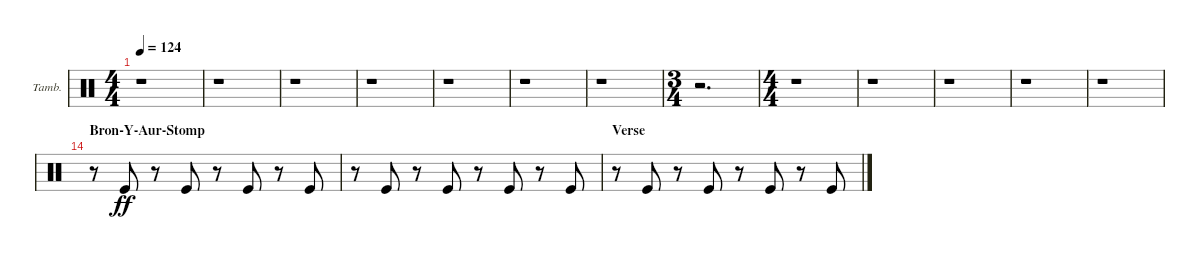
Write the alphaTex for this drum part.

\bracketExtendMode nobrackets
\firstSystemTrackNameOrientation horizontal
\otherSystemsTrackNameOrientation horizontal
\defaultBarNumberDisplay FirstOfSystem
\track ("Tambourine" "Tamb.") {instrument percussion}
\staff {score}
\articulation defaults
\ts (4 4)
\scale
0.33
\tempo 124
\accidentals auto
\clef neutral
\ottava regular
\simile none
\scale
0.333333
\ks c
r.1{dy ff} |
\scale
0.33
\scale
0.333333 r.1 |
\scale
0.327543
\scale
0.333333 r.1 |
\scale
0.336228
\scale
0.333333 r.1 |
\scale
0.336228
\scale
0.333333 r.1 |
\scale
0.351948
\scale
0.333333 r.1 |
\scale
0.351948
\scale
0.333333 r.1 |
\ts (3 4)
\scale
0.296104
\scale
0.333333 r.2{d} |
\ts (4 4)
\scale
0.352941
\scale
0.333333 r.1 |
\scale
0.323529
\scale
0.333333 r.1 |
\scale
0.323529
\scale
0.369863 r.1 |
\scale
0.333333
\scale
0.369863 r.1 |
\scale
0.333333
\scale
0.260274 r.1 |
\section ("" "Bron-Y-Aur-Stomp")
\scale
0.333333
\scale
0.333333 r.8 "Kick (hit)".8 r.8 "Kick (hit)".8 r.8 "Kick (hit)".8 r.8 "Kick (hit)".8 |
\scale
0.297297
\scale
0.333333 r.8 "Kick (hit)".8 r.8 "Kick (hit)".8 r.8 "Kick (hit)".8 r.8 "Kick (hit)".8 |
\section ("" "Verse")
\scale
0.297297
\scale
0.333333 r.8 "Kick (hit)".8 r.8 "Kick (hit)".8 r.8 "Kick (hit)".8 r.8 "Kick (hit)".8
